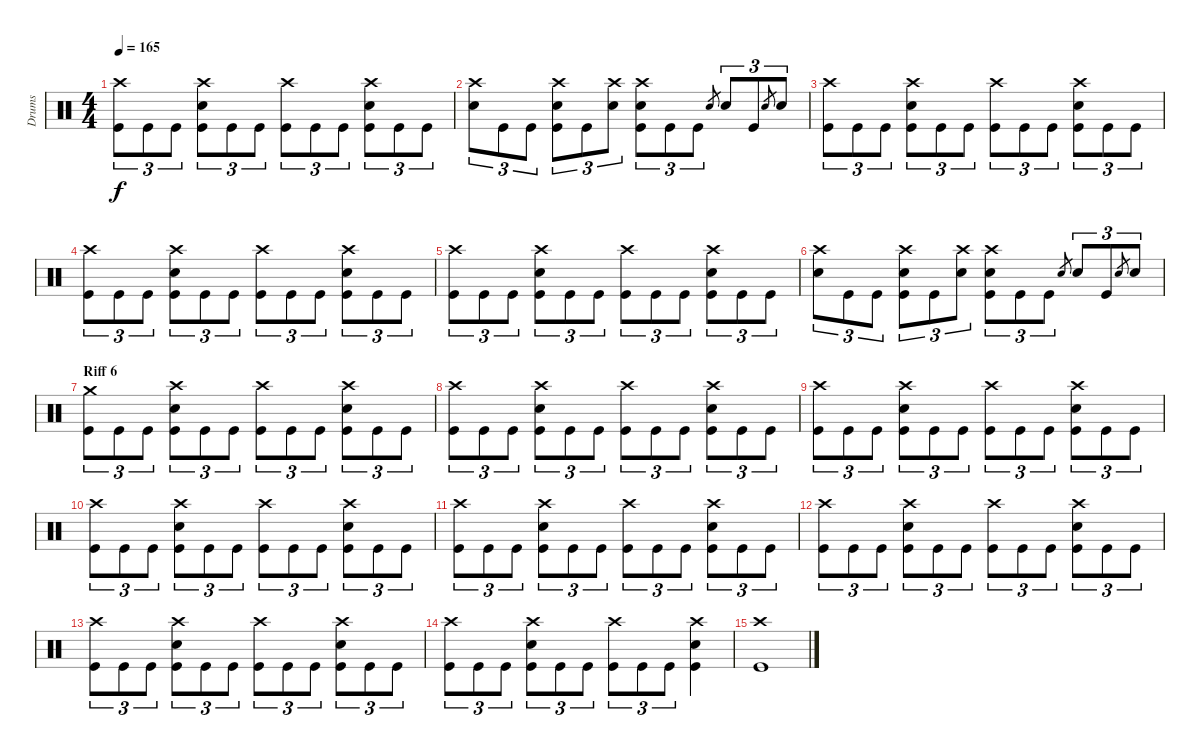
\track ("Drums" "Drums") {instrument percussion}
\staff {score}
\articulation defaults
\ts (4 4)
\tempo 165
\clef neutral
\ks c
("Crash high (hit)" "Kick (hit)").8{tu (3 2) dy f} "Kick (hit)".8{tu (3 2)} "Kick (hit)".8{tu (3 2)} ("Crash high (hit)" "Electric Snare (hit)" "Kick (hit)").8{tu (3 2)} "Kick (hit)".8{tu (3 2)} "Kick (hit)".8{tu (3 2)} ("Crash high (hit)" "Kick (hit)").8{tu (3 2)} "Kick (hit)".8{tu (3 2)} "Kick (hit)".8{tu (3 2)} ("Crash high (hit)" "Electric Snare (hit)" "Kick (hit)").8{tu (3 2)} "Kick (hit)".8{tu (3 2)} "Kick (hit)".8{tu (3 2)} |
("Crash high (hit)" "Electric Snare (hit)").8{tu (3 2)} "Kick (hit)".8{tu (3 2)} "Kick (hit)".8{tu (3 2)} ("Crash high (hit)" "Electric Snare (hit)" "Kick (hit)").8{tu (3 2)} "Kick (hit)".8{tu (3 2)} ("Crash high (hit)" "Electric Snare (hit)").8{tu (3 2)} ("Crash high (hit)" "Electric Snare (hit)" "Kick (hit)").8{tu (3 2)} "Kick (hit)".8{tu (3 2)} "Kick (hit)".8{tu (3 2)} "Electric Snare (hit)".8{gr} "Electric Snare (hit)".8{tu (3 2)} "Kick (hit)".8{tu (3 2)} "Electric Snare (hit)".8{gr} "Electric Snare (hit)".8{tu (3 2)} |
("Crash high (hit)" "Kick (hit)").8{tu (3 2)} "Kick (hit)".8{tu (3 2)} "Kick (hit)".8{tu (3 2)} ("Crash high (hit)" "Electric Snare (hit)" "Kick (hit)").8{tu (3 2)} "Kick (hit)".8{tu (3 2)} "Kick (hit)".8{tu (3 2)} ("Crash high (hit)" "Kick (hit)").8{tu (3 2)} "Kick (hit)".8{tu (3 2)} "Kick (hit)".8{tu (3 2)} ("Crash high (hit)" "Electric Snare (hit)" "Kick (hit)").8{tu (3 2)} "Kick (hit)".8{tu (3 2)} "Kick (hit)".8{tu (3 2)} |
("Crash high (hit)" "Kick (hit)").8{tu (3 2)} "Kick (hit)".8{tu (3 2)} "Kick (hit)".8{tu (3 2)} ("Crash high (hit)" "Electric Snare (hit)" "Kick (hit)").8{tu (3 2)} "Kick (hit)".8{tu (3 2)} "Kick (hit)".8{tu (3 2)} ("Crash high (hit)" "Kick (hit)").8{tu (3 2)} "Kick (hit)".8{tu (3 2)} "Kick (hit)".8{tu (3 2)} ("Crash high (hit)" "Electric Snare (hit)" "Kick (hit)").8{tu (3 2)} "Kick (hit)".8{tu (3 2)} "Kick (hit)".8{tu (3 2)} |
("Crash high (hit)" "Kick (hit)").8{tu (3 2)} "Kick (hit)".8{tu (3 2)} "Kick (hit)".8{tu (3 2)} ("Crash high (hit)" "Electric Snare (hit)" "Kick (hit)").8{tu (3 2)} "Kick (hit)".8{tu (3 2)} "Kick (hit)".8{tu (3 2)} ("Crash high (hit)" "Kick (hit)").8{tu (3 2)} "Kick (hit)".8{tu (3 2)} "Kick (hit)".8{tu (3 2)} ("Crash high (hit)" "Electric Snare (hit)" "Kick (hit)").8{tu (3 2)} "Kick (hit)".8{tu (3 2)} "Kick (hit)".8{tu (3 2)} |
("Crash high (hit)" "Electric Snare (hit)").8{tu (3 2)} "Kick (hit)".8{tu (3 2)} "Kick (hit)".8{tu (3 2)} ("Crash high (hit)" "Electric Snare (hit)" "Kick (hit)").8{tu (3 2)} "Kick (hit)".8{tu (3 2)} ("Crash high (hit)" "Electric Snare (hit)").8{tu (3 2)} ("Crash high (hit)" "Electric Snare (hit)" "Kick (hit)").8{tu (3 2)} "Kick (hit)".8{tu (3 2)} "Kick (hit)".8{tu (3 2)} "Electric Snare (hit)".8{gr} "Electric Snare (hit)".8{tu (3 2)} "Kick (hit)".8{tu (3 2)} "Electric Snare (hit)".8{gr} "Electric Snare (hit)".8{tu (3 2)} |
\section ("" "Riff 6")
("Crash medium (hit)" "Kick (hit)").8{tu (3 2)} "Kick (hit)".8{tu (3 2)} "Kick (hit)".8{tu (3 2)} ("Crash high (hit)" "Electric Snare (hit)" "Kick (hit)").8{tu (3 2)} "Kick (hit)".8{tu (3 2)} "Kick (hit)".8{tu (3 2)} ("Crash high (hit)" "Kick (hit)").8{tu (3 2)} "Kick (hit)".8{tu (3 2)} "Kick (hit)".8{tu (3 2)} ("Crash high (hit)" "Electric Snare (hit)" "Kick (hit)").8{tu (3 2)} "Kick (hit)".8{tu (3 2)} "Kick (hit)".8{tu (3 2)} |
("Crash high (hit)" "Kick (hit)").8{tu (3 2)} "Kick (hit)".8{tu (3 2)} "Kick (hit)".8{tu (3 2)} ("Crash high (hit)" "Electric Snare (hit)" "Kick (hit)").8{tu (3 2)} "Kick (hit)".8{tu (3 2)} "Kick (hit)".8{tu (3 2)} ("Crash high (hit)" "Kick (hit)").8{tu (3 2)} "Kick (hit)".8{tu (3 2)} "Kick (hit)".8{tu (3 2)} ("Crash high (hit)" "Electric Snare (hit)" "Kick (hit)").8{tu (3 2)} "Kick (hit)".8{tu (3 2)} "Kick (hit)".8{tu (3 2)} |
("Crash high (hit)" "Kick (hit)").8{tu (3 2)} "Kick (hit)".8{tu (3 2)} "Kick (hit)".8{tu (3 2)} ("Crash high (hit)" "Electric Snare (hit)" "Kick (hit)").8{tu (3 2)} "Kick (hit)".8{tu (3 2)} "Kick (hit)".8{tu (3 2)} ("Crash high (hit)" "Kick (hit)").8{tu (3 2)} "Kick (hit)".8{tu (3 2)} "Kick (hit)".8{tu (3 2)} ("Crash high (hit)" "Electric Snare (hit)" "Kick (hit)").8{tu (3 2)} "Kick (hit)".8{tu (3 2)} "Kick (hit)".8{tu (3 2)} |
("Crash high (hit)" "Kick (hit)").8{tu (3 2)} "Kick (hit)".8{tu (3 2)} "Kick (hit)".8{tu (3 2)} ("Crash high (hit)" "Electric Snare (hit)" "Kick (hit)").8{tu (3 2)} "Kick (hit)".8{tu (3 2)} "Kick (hit)".8{tu (3 2)} ("Crash high (hit)" "Kick (hit)").8{tu (3 2)} "Kick (hit)".8{tu (3 2)} "Kick (hit)".8{tu (3 2)} ("Crash high (hit)" "Electric Snare (hit)" "Kick (hit)").8{tu (3 2)} "Kick (hit)".8{tu (3 2)} "Kick (hit)".8{tu (3 2)} |
("Crash high (hit)" "Kick (hit)").8{tu (3 2)} "Kick (hit)".8{tu (3 2)} "Kick (hit)".8{tu (3 2)} ("Crash high (hit)" "Electric Snare (hit)" "Kick (hit)").8{tu (3 2)} "Kick (hit)".8{tu (3 2)} "Kick (hit)".8{tu (3 2)} ("Crash high (hit)" "Kick (hit)").8{tu (3 2)} "Kick (hit)".8{tu (3 2)} "Kick (hit)".8{tu (3 2)} ("Crash high (hit)" "Electric Snare (hit)" "Kick (hit)").8{tu (3 2)} "Kick (hit)".8{tu (3 2)} "Kick (hit)".8{tu (3 2)} |
("Crash high (hit)" "Kick (hit)").8{tu (3 2)} "Kick (hit)".8{tu (3 2)} "Kick (hit)".8{tu (3 2)} ("Crash high (hit)" "Electric Snare (hit)" "Kick (hit)").8{tu (3 2)} "Kick (hit)".8{tu (3 2)} "Kick (hit)".8{tu (3 2)} ("Crash high (hit)" "Kick (hit)").8{tu (3 2)} "Kick (hit)".8{tu (3 2)} "Kick (hit)".8{tu (3 2)} ("Crash high (hit)" "Electric Snare (hit)" "Kick (hit)").8{tu (3 2)} "Kick (hit)".8{tu (3 2)} "Kick (hit)".8{tu (3 2)} |
("Crash high (hit)" "Kick (hit)").8{tu (3 2)} "Kick (hit)".8{tu (3 2)} "Kick (hit)".8{tu (3 2)} ("Crash high (hit)" "Electric Snare (hit)" "Kick (hit)").8{tu (3 2)} "Kick (hit)".8{tu (3 2)} "Kick (hit)".8{tu (3 2)} ("Crash high (hit)" "Kick (hit)").8{tu (3 2)} "Kick (hit)".8{tu (3 2)} "Kick (hit)".8{tu (3 2)} ("Crash high (hit)" "Electric Snare (hit)" "Kick (hit)").8{tu (3 2)} "Kick (hit)".8{tu (3 2)} "Kick (hit)".8{tu (3 2)} |
("Crash high (hit)" "Kick (hit)").8{tu (3 2)} "Kick (hit)".8{tu (3 2)} "Kick (hit)".8{tu (3 2)} ("Crash high (hit)" "Electric Snare (hit)" "Kick (hit)").8{tu (3 2)} "Kick (hit)".8{tu (3 2)} "Kick (hit)".8{tu (3 2)} ("Crash high (hit)" "Kick (hit)").8{tu (3 2)} "Kick (hit)".8{tu (3 2)} "Kick (hit)".8{tu (3 2)} ("Crash high (hit)" "Electric Snare (hit)" "Kick (hit)").4 |
("Crash high (hit)" "Kick (hit)").1
